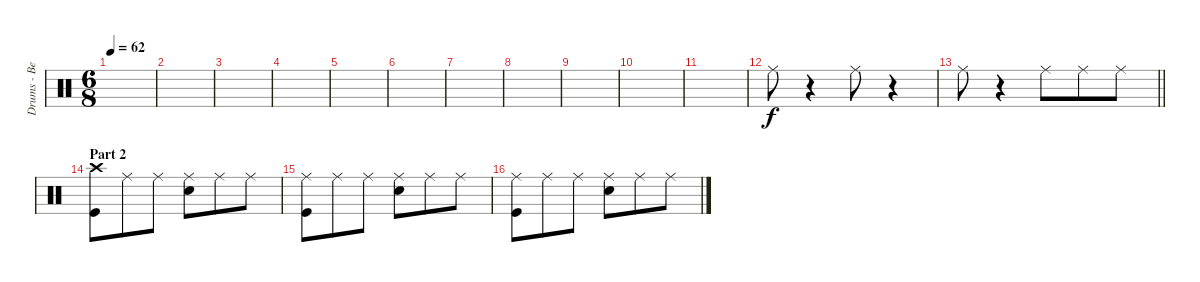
\track ("Drums - Ben Johnston" "Drums - Be") {instrument percussion}
\staff {score}
\articulation defaults
\ts (6 8)
\tempo 62
\clef neutral
\ks c
|
|
|
|
|
|
|
|
|
|
|
"Ride (middle)".8 r.4 "Ride (middle)".8 r.4 |
\barLineRight lightlight "Ride (middle)".8
r.4 "Ride (middle)".8 "Ride (middle)".8 "Ride (middle)".8 |
\section ("" "Part 2")
("Crash high (hit)" "Kick (hit)").8 "Ride (middle)".8 "Ride (middle)".8 ("Ride (middle)" "Snare (hit) 2").8 "Ride (middle)".8 "Ride (middle)".8 |
("Ride (middle)" "Kick (hit)").8 "Ride (middle)".8 "Ride (middle)".8 ("Ride (middle)" "Snare (hit) 2").8 "Ride (middle)".8 "Ride (middle)".8 |
("Ride (middle)" "Kick (hit)").8 "Ride (middle)".8 "Ride (middle)".8 ("Ride (middle)" "Snare (hit) 2").8 "Ride (middle)".8 "Ride (middle)".8
